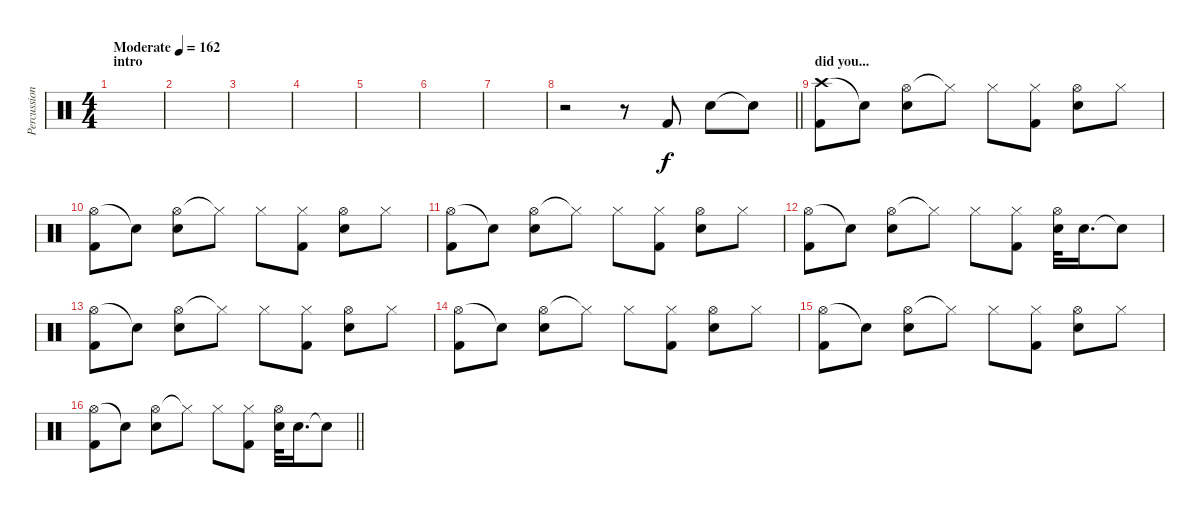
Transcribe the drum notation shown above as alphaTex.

\track ("Percussioni" "Percussion") {instrument percussion}
\staff {score}
\articulation defaults
\ts (4 4)
\section ("" "intro")
\tempo (162 "Moderate")
\clef neutral
\ks c
|
|
|
|
|
|
|
\barLineRight lightlight
r.2 r.8 "Kick (hit) 2".8 "Snare (hit) 2".8 "Snare (hit)"{t}.8 |
\section ("" "did you...")
("Crash high (hit)" "Kick (hit) 2").8 "Snare (hit)"{t}.8 ("Hi-Hat (open)" "Snare (hit) 2").8 "Hi-Hat (closed)"{t}.8 "Hi-Hat (closed)".8 ("Hi-Hat (closed)" "Kick (hit) 2").8 ("Hi-Hat (open)" "Snare (hit) 2").8 "Hi-Hat (closed)".8 |
("Hi-Hat (open)" "Kick (hit) 2").8 "Snare (hit)"{t}.8 ("Hi-Hat (open)" "Snare (hit) 2").8 "Hi-Hat (closed)"{t}.8 "Hi-Hat (closed)".8 ("Hi-Hat (closed)" "Kick (hit) 2").8 ("Hi-Hat (open)" "Snare (hit) 2").8 "Hi-Hat (closed)".8 |
("Hi-Hat (open)" "Kick (hit) 2").8 "Snare (hit)"{t}.8 ("Hi-Hat (open)" "Snare (hit) 2").8 "Hi-Hat (closed)"{t}.8 "Hi-Hat (closed)".8 ("Hi-Hat (closed)" "Kick (hit) 2").8 ("Hi-Hat (open)" "Snare (hit) 2").8 "Hi-Hat (closed)".8 |
("Hi-Hat (open)" "Kick (hit) 2").8 "Snare (hit)"{t}.8 ("Hi-Hat (open)" "Snare (hit) 2").8 "Hi-Hat (closed)"{t}.8 "Hi-Hat (closed)".8 ("Hi-Hat (closed)" "Kick (hit) 2").8 ("Hi-Hat (open)" "Snare (hit) 2").32 "Snare (hit) 2".16{d} "Snare (hit)"{t}.8 |
("Hi-Hat (open)" "Kick (hit) 2").8 "Snare (hit)"{t}.8 ("Hi-Hat (open)" "Snare (hit) 2").8 "Hi-Hat (closed)"{t}.8 "Hi-Hat (closed)".8 ("Hi-Hat (closed)" "Kick (hit) 2").8 ("Hi-Hat (open)" "Snare (hit) 2").8 "Hi-Hat (closed)".8 |
("Hi-Hat (open)" "Kick (hit) 2").8 "Snare (hit)"{t}.8 ("Hi-Hat (open)" "Snare (hit) 2").8 "Hi-Hat (closed)"{t}.8 "Hi-Hat (closed)".8 ("Hi-Hat (closed)" "Kick (hit) 2").8 ("Hi-Hat (open)" "Snare (hit) 2").8 "Hi-Hat (closed)".8 |
("Hi-Hat (open)" "Kick (hit) 2").8 "Snare (hit)"{t}.8 ("Hi-Hat (open)" "Snare (hit) 2").8 "Hi-Hat (closed)"{t}.8 "Hi-Hat (closed)".8 ("Hi-Hat (closed)" "Kick (hit) 2").8 ("Hi-Hat (open)" "Snare (hit) 2").8 "Hi-Hat (closed)".8 |
\barLineRight lightlight
("Hi-Hat (open)" "Kick (hit) 2").8 "Snare (hit)"{t}.8 ("Hi-Hat (open)" "Snare (hit) 2").8 "Hi-Hat (closed)"{t}.8 "Hi-Hat (closed)".8 ("Hi-Hat (closed)" "Kick (hit) 2").8 ("Hi-Hat (open)" "Snare (hit) 2").32 "Snare (hit) 2".16{d} "Snare (hit)"{t}.8
